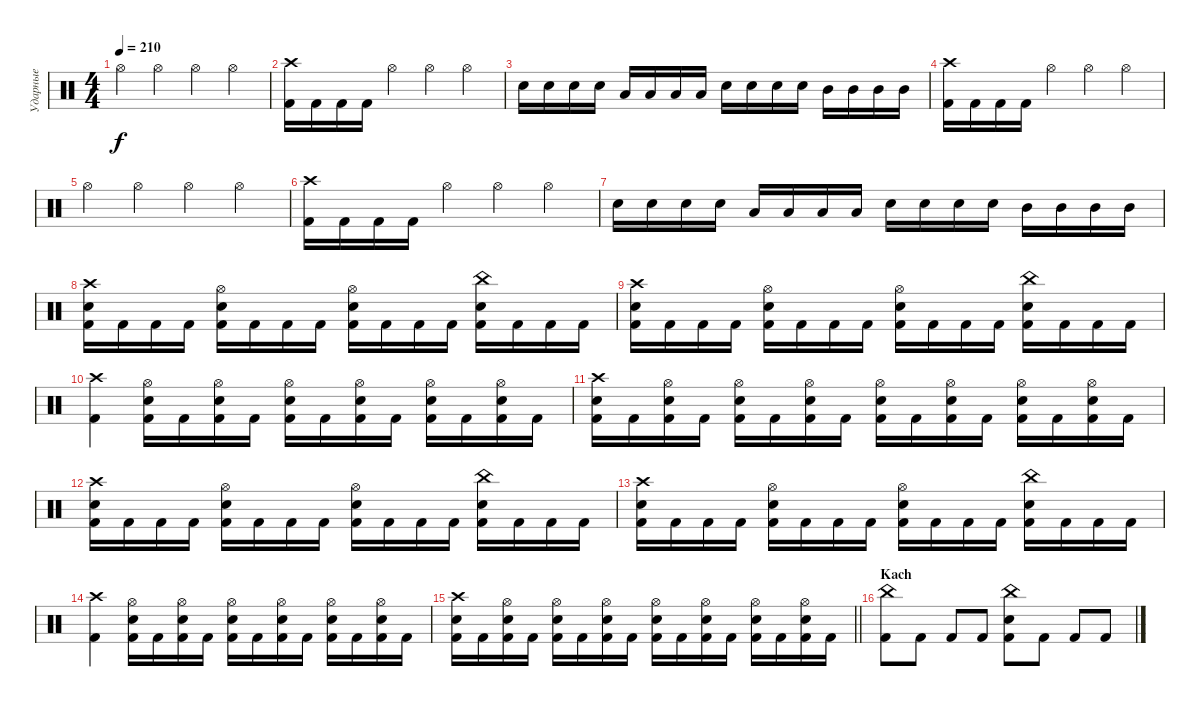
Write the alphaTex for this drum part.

\track ("Ударные" "Ударные") {instrument percussion}
\staff {score}
\articulation defaults
\ts (4 4)
\tempo 210
\clef neutral
\ks c "Hi-Hat (open)".4{dy f} "Hi-Hat (open)".4 "Hi-Hat (open)".4 "Hi-Hat (open)".4
|
("Crash high (hit)" "Kick (hit) 2").16 "Kick (hit) 2".16 "Kick (hit) 2".16 "Kick (hit) 2".16 "Hi-Hat (open)".4 "Hi-Hat (open)".4 "Hi-Hat (open)".4 |
"Snare (hit) 2".16 "Snare (hit) 2".16 "Snare (hit) 2".16 "Snare (hit) 2".16 "Low Tom (hit)".16 "Low Tom (hit)".16 "Low Tom (hit)".16 "Low Tom (hit)".16 "Snare (hit) 2".16 "Snare (hit) 2".16 "Snare (hit) 2".16 "Snare (hit) 2".16 "Mid Tom (hit)".16 "Mid Tom (hit)".16 "Mid Tom (hit)".16 "Mid Tom (hit)".16 |
("Crash high (hit)" "Kick (hit) 2").16 "Kick (hit) 2".16 "Kick (hit) 2".16 "Kick (hit) 2".16 "Hi-Hat (open)".4 "Hi-Hat (open)".4 "Hi-Hat (open)".4 |
"Hi-Hat (open)".4 "Hi-Hat (open)".4 "Hi-Hat (open)".4 "Hi-Hat (open)".4 |
("Crash high (hit)" "Kick (hit) 2").16 "Kick (hit) 2".16 "Kick (hit) 2".16 "Kick (hit) 2".16 "Hi-Hat (open)".4 "Hi-Hat (open)".4 "Hi-Hat (open)".4 |
"Snare (hit) 2".16 "Snare (hit) 2".16 "Snare (hit) 2".16 "Snare (hit) 2".16 "Low Tom (hit)".16 "Low Tom (hit)".16 "Low Tom (hit)".16 "Low Tom (hit)".16 "Snare (hit) 2".16 "Snare (hit) 2".16 "Snare (hit) 2".16 "Snare (hit) 2".16 "Mid Tom (hit)".16 "Mid Tom (hit)".16 "Mid Tom (hit)".16 "Mid Tom (hit)".16 |
("Crash high (hit)" "Snare (hit) 2" "Kick (hit) 2").16 "Kick (hit) 2".16 "Kick (hit) 2".16 "Kick (hit) 2".16 ("Hi-Hat (open)" "Snare (hit) 2" "Kick (hit) 2").16 "Kick (hit) 2".16 "Kick (hit) 2".16 "Kick (hit) 2".16 ("Hi-Hat (open)" "Snare (hit) 2" "Kick (hit) 2").16 "Kick (hit) 2".16 "Kick (hit) 2".16 "Kick (hit) 2".16 ("China (hit)" "Snare (hit) 2" "Kick (hit) 2").16 "Kick (hit) 2".16 "Kick (hit) 2".16 "Kick (hit) 2".16 |
("Crash high (hit)" "Snare (hit) 2" "Kick (hit) 2").16 "Kick (hit) 2".16 "Kick (hit) 2".16 "Kick (hit) 2".16 ("Hi-Hat (open)" "Snare (hit) 2" "Kick (hit) 2").16 "Kick (hit) 2".16 "Kick (hit) 2".16 "Kick (hit) 2".16 ("Hi-Hat (open)" "Snare (hit) 2" "Kick (hit) 2").16 "Kick (hit) 2".16 "Kick (hit) 2".16 "Kick (hit) 2".16 ("China (hit)" "Snare (hit) 2" "Kick (hit) 2").16 "Kick (hit) 2".16 "Kick (hit) 2".16 "Kick (hit) 2".16 |
("Crash high (hit)" "Kick (hit) 2").4 ("Hi-Hat (open)" "Snare (hit) 2" "Kick (hit) 2").16 "Kick (hit) 2".16 ("Hi-Hat (open)" "Snare (hit) 2" "Kick (hit) 2").16 "Kick (hit) 2".16 ("Hi-Hat (open)" "Snare (hit) 2" "Kick (hit) 2").16 "Kick (hit) 2".16 ("Hi-Hat (open)" "Snare (hit) 2" "Kick (hit) 2").16 "Kick (hit) 2".16 ("Hi-Hat (open)" "Snare (hit) 2" "Kick (hit) 2").16 "Kick (hit) 2".16 ("Hi-Hat (open)" "Snare (hit) 2" "Kick (hit) 2").16 "Kick (hit) 2".16 |
("Crash high (hit)" "Snare (hit) 2" "Kick (hit) 2").16 "Kick (hit) 2".16 ("Hi-Hat (open)" "Snare (hit) 2" "Kick (hit) 2").16 "Kick (hit) 2".16 ("Hi-Hat (open)" "Snare (hit) 2" "Kick (hit) 2").16 "Kick (hit) 2".16 ("Hi-Hat (open)" "Snare (hit) 2" "Kick (hit) 2").16 "Kick (hit) 2".16 ("Hi-Hat (open)" "Snare (hit) 2" "Kick (hit) 2").16 "Kick (hit) 2".16 ("Hi-Hat (open)" "Snare (hit) 2" "Kick (hit) 2").16 "Kick (hit) 2".16 ("Hi-Hat (open)" "Snare (hit) 2" "Kick (hit) 2").16 "Kick (hit) 2".16 ("Hi-Hat (open)" "Snare (hit) 2" "Kick (hit) 2").16 "Kick (hit) 2".16 |
("Crash high (hit)" "Snare (hit) 2" "Kick (hit) 2").16 "Kick (hit) 2".16 "Kick (hit) 2".16 "Kick (hit) 2".16 ("Hi-Hat (open)" "Snare (hit) 2" "Kick (hit) 2").16 "Kick (hit) 2".16 "Kick (hit) 2".16 "Kick (hit) 2".16 ("Hi-Hat (open)" "Snare (hit) 2" "Kick (hit) 2").16 "Kick (hit) 2".16 "Kick (hit) 2".16 "Kick (hit) 2".16 ("China (hit)" "Snare (hit) 2" "Kick (hit) 2").16 "Kick (hit) 2".16 "Kick (hit) 2".16 "Kick (hit) 2".16 |
("Crash high (hit)" "Snare (hit) 2" "Kick (hit) 2").16 "Kick (hit) 2".16 "Kick (hit) 2".16 "Kick (hit) 2".16 ("Hi-Hat (open)" "Snare (hit) 2" "Kick (hit) 2").16 "Kick (hit) 2".16 "Kick (hit) 2".16 "Kick (hit) 2".16 ("Hi-Hat (open)" "Snare (hit) 2" "Kick (hit) 2").16 "Kick (hit) 2".16 "Kick (hit) 2".16 "Kick (hit) 2".16 ("China (hit)" "Snare (hit) 2" "Kick (hit) 2").16 "Kick (hit) 2".16 "Kick (hit) 2".16 "Kick (hit) 2".16 |
("Crash high (hit)" "Kick (hit) 2").4 ("Hi-Hat (open)" "Snare (hit) 2" "Kick (hit) 2").16 "Kick (hit) 2".16 ("Hi-Hat (open)" "Snare (hit) 2" "Kick (hit) 2").16 "Kick (hit) 2".16 ("Hi-Hat (open)" "Snare (hit) 2" "Kick (hit) 2").16 "Kick (hit) 2".16 ("Hi-Hat (open)" "Snare (hit) 2" "Kick (hit) 2").16 "Kick (hit) 2".16 ("Hi-Hat (open)" "Snare (hit) 2" "Kick (hit) 2").16 "Kick (hit) 2".16 ("Hi-Hat (open)" "Snare (hit) 2" "Kick (hit) 2").16 "Kick (hit) 2".16 |
\barLineRight lightlight
("Crash high (hit)" "Snare (hit) 2" "Kick (hit) 2").16 "Kick (hit) 2".16 ("Hi-Hat (open)" "Snare (hit) 2" "Kick (hit) 2").16 "Kick (hit) 2".16 ("Hi-Hat (open)" "Snare (hit) 2" "Kick (hit) 2").16 "Kick (hit) 2".16 ("Hi-Hat (open)" "Snare (hit) 2" "Kick (hit) 2").16 "Kick (hit) 2".16 ("Hi-Hat (open)" "Snare (hit) 2" "Kick (hit) 2").16 "Kick (hit) 2".16 ("Hi-Hat (open)" "Snare (hit) 2" "Kick (hit) 2").16 "Kick (hit) 2".16 ("Hi-Hat (open)" "Snare (hit) 2" "Kick (hit) 2").16 "Kick (hit) 2".16 ("Hi-Hat (open)" "Snare (hit) 2" "Kick (hit) 2").16 "Kick (hit) 2".16 |
\section ("" "Kach")
("China (hit)" "Kick (hit) 2").8 "Kick (hit) 2".8 "Kick (hit) 2".8 "Kick (hit) 2".8 ("China (hit)" "Snare (hit) 2" "Kick (hit) 2").8 "Kick (hit) 2".8 "Kick (hit) 2".8 "Kick (hit) 2".8
